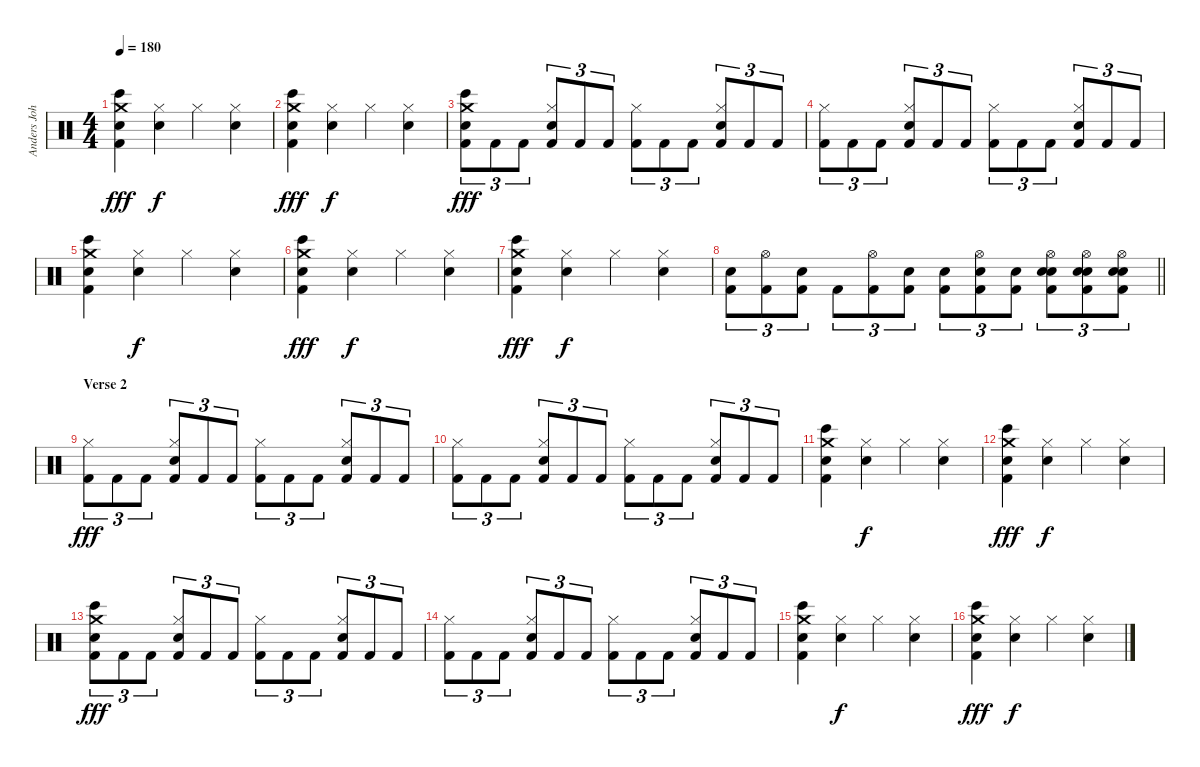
\track ("Anders Johansson" "Anders Joh") {instrument percussion}
\staff {score}
\articulation defaults
\ts (4 4)
\tempo 180
\clef neutral
\ks c
("Bongo High (hit)" "Crash medium (hit)" "Snare (hit) 2" "Kick (hit) 2").4{dy fff} ("Hi-Hat (closed)" "Electric Snare (hit)").4{dy f} "Hi-Hat (closed)".4 ("Hi-Hat (closed)" "Electric Snare (hit)").4 |
("Bongo High (hit)" "Crash medium (hit)" "Snare (hit) 2" "Kick (hit) 2").4{dy fff} ("Hi-Hat (closed)" "Electric Snare (hit)").4{dy f} "Hi-Hat (closed)".4 ("Hi-Hat (closed)" "Electric Snare (hit)").4 |
("Bongo High (hit)" "Crash medium (hit)" "Snare (hit) 2" "Kick (hit) 2").8{tu (3 2) dy fff} "Kick (hit) 2".8{tu (3 2)} "Kick (hit) 2".8{tu (3 2)} ("Hi-Hat (closed)" "Electric Snare (hit)" "Kick (hit) 2").8{tu (3 2)} "Kick (hit) 2".8{tu (3 2)} "Kick (hit) 2".8{tu (3 2)} ("Hi-Hat (closed)" "Kick (hit) 2").8{tu (3 2)} "Kick (hit) 2".8{tu (3 2)} "Kick (hit) 2".8{tu (3 2)} ("Hi-Hat (closed)" "Electric Snare (hit)" "Kick (hit) 2").8{tu (3 2)} "Kick (hit) 2".8{tu (3 2)} "Kick (hit) 2".8{tu (3 2)} |
("Hi-Hat (closed)" "Kick (hit) 2").8{tu (3 2)} "Kick (hit) 2".8{tu (3 2)} "Kick (hit) 2".8{tu (3 2)} ("Hi-Hat (closed)" "Electric Snare (hit)" "Kick (hit) 2").8{tu (3 2)} "Kick (hit) 2".8{tu (3 2)} "Kick (hit) 2".8{tu (3 2)} ("Hi-Hat (closed)" "Kick (hit) 2").8{tu (3 2)} "Kick (hit) 2".8{tu (3 2)} "Kick (hit) 2".8{tu (3 2)} ("Hi-Hat (closed)" "Electric Snare (hit)" "Kick (hit) 2").8{tu (3 2)} "Kick (hit) 2".8{tu (3 2)} "Kick (hit) 2".8{tu (3 2)} |
("Bongo High (hit)" "Crash medium (hit)" "Snare (hit) 2" "Kick (hit) 2").4 ("Hi-Hat (closed)" "Electric Snare (hit)").4{dy f} "Hi-Hat (closed)".4 ("Hi-Hat (closed)" "Electric Snare (hit)").4 |
("Bongo High (hit)" "Crash medium (hit)" "Snare (hit) 2" "Kick (hit) 2").4{dy fff} ("Hi-Hat (closed)" "Electric Snare (hit)").4{dy f} "Hi-Hat (closed)".4 ("Hi-Hat (closed)" "Electric Snare (hit)").4 |
("Bongo High (hit)" "Crash medium (hit)" "Snare (hit) 2" "Kick (hit) 2").4{dy fff} ("Hi-Hat (closed)" "Electric Snare (hit)").4{dy f} "Hi-Hat (closed)".4 ("Hi-Hat (closed)" "Electric Snare (hit)").4 |
\barLineRight lightlight
("Snare (hit) 2" "Kick (hit) 2").8{tu (3 2)} ("Hi-Hat (open)" "Kick (hit) 2").8{tu (3 2)} ("Snare (hit) 2" "Kick (hit) 2").8{tu (3 2)} "Kick (hit) 2".8{tu (3 2)} ("Hi-Hat (open)" "Kick (hit) 2").8{tu (3 2)} ("Snare (hit) 2" "Kick (hit) 2").8{tu (3 2)} ("Snare (hit) 2" "Kick (hit) 2").8{tu (3 2)} ("Hi-Hat (open)" "Electric Snare (hit)" "Kick (hit) 2").8{tu (3 2)} ("Snare (hit) 2" "Kick (hit) 2").8{tu (3 2)} ("Hi-Hat (open)" "Snare (hit) 2" "Electric Snare (hit)" "Kick (hit) 2").8{tu (3 2)} ("Hi-Hat (open)" "Snare (hit) 2" "Electric Snare (hit)" "Kick (hit) 2").8{tu (3 2)} ("Hi-Hat (open)" "Snare (hit) 2" "Electric Snare (hit)" "Kick (hit) 2").8{tu (3 2)} |
\section ("" "Verse 2")
("Hi-Hat (closed)" "Kick (hit) 2").8{tu (3 2) dy fff} "Kick (hit) 2".8{tu (3 2)} "Kick (hit) 2".8{tu (3 2)} ("Hi-Hat (closed)" "Electric Snare (hit)" "Kick (hit) 2").8{tu (3 2)} "Kick (hit) 2".8{tu (3 2)} "Kick (hit) 2".8{tu (3 2)} ("Hi-Hat (closed)" "Kick (hit) 2").8{tu (3 2)} "Kick (hit) 2".8{tu (3 2)} "Kick (hit) 2".8{tu (3 2)} ("Hi-Hat (closed)" "Electric Snare (hit)" "Kick (hit) 2").8{tu (3 2)} "Kick (hit) 2".8{tu (3 2)} "Kick (hit) 2".8{tu (3 2)} |
("Hi-Hat (closed)" "Kick (hit) 2").8{tu (3 2)} "Kick (hit) 2".8{tu (3 2)} "Kick (hit) 2".8{tu (3 2)} ("Hi-Hat (closed)" "Electric Snare (hit)" "Kick (hit) 2").8{tu (3 2)} "Kick (hit) 2".8{tu (3 2)} "Kick (hit) 2".8{tu (3 2)} ("Hi-Hat (closed)" "Kick (hit) 2").8{tu (3 2)} "Kick (hit) 2".8{tu (3 2)} "Kick (hit) 2".8{tu (3 2)} ("Hi-Hat (closed)" "Electric Snare (hit)" "Kick (hit) 2").8{tu (3 2)} "Kick (hit) 2".8{tu (3 2)} "Kick (hit) 2".8{tu (3 2)} |
("Bongo High (hit)" "Crash medium (hit)" "Snare (hit) 2" "Kick (hit) 2").4 ("Hi-Hat (closed)" "Electric Snare (hit)").4{dy f} "Hi-Hat (closed)".4 ("Hi-Hat (closed)" "Electric Snare (hit)").4 |
("Bongo High (hit)" "Crash medium (hit)" "Snare (hit) 2" "Kick (hit) 2").4{dy fff} ("Hi-Hat (closed)" "Electric Snare (hit)").4{dy f} "Hi-Hat (closed)".4 ("Hi-Hat (closed)" "Electric Snare (hit)").4 |
("Bongo High (hit)" "Crash medium (hit)" "Snare (hit) 2" "Kick (hit) 2").8{tu (3 2) dy fff} "Kick (hit) 2".8{tu (3 2)} "Kick (hit) 2".8{tu (3 2)} ("Hi-Hat (closed)" "Electric Snare (hit)" "Kick (hit) 2").8{tu (3 2)} "Kick (hit) 2".8{tu (3 2)} "Kick (hit) 2".8{tu (3 2)} ("Hi-Hat (closed)" "Kick (hit) 2").8{tu (3 2)} "Kick (hit) 2".8{tu (3 2)} "Kick (hit) 2".8{tu (3 2)} ("Hi-Hat (closed)" "Electric Snare (hit)" "Kick (hit) 2").8{tu (3 2)} "Kick (hit) 2".8{tu (3 2)} "Kick (hit) 2".8{tu (3 2)} |
("Hi-Hat (closed)" "Kick (hit) 2").8{tu (3 2)} "Kick (hit) 2".8{tu (3 2)} "Kick (hit) 2".8{tu (3 2)} ("Hi-Hat (closed)" "Electric Snare (hit)" "Kick (hit) 2").8{tu (3 2)} "Kick (hit) 2".8{tu (3 2)} "Kick (hit) 2".8{tu (3 2)} ("Hi-Hat (closed)" "Kick (hit) 2").8{tu (3 2)} "Kick (hit) 2".8{tu (3 2)} "Kick (hit) 2".8{tu (3 2)} ("Hi-Hat (closed)" "Electric Snare (hit)" "Kick (hit) 2").8{tu (3 2)} "Kick (hit) 2".8{tu (3 2)} "Kick (hit) 2".8{tu (3 2)} |
("Bongo High (hit)" "Crash medium (hit)" "Snare (hit) 2" "Kick (hit) 2").4 ("Hi-Hat (closed)" "Electric Snare (hit)").4{dy f} "Hi-Hat (closed)".4 ("Hi-Hat (closed)" "Electric Snare (hit)").4 |
("Bongo High (hit)" "Crash medium (hit)" "Snare (hit) 2" "Kick (hit) 2").4{dy fff} ("Hi-Hat (closed)" "Electric Snare (hit)").4{dy f} "Hi-Hat (closed)".4 ("Hi-Hat (closed)" "Electric Snare (hit)").4
